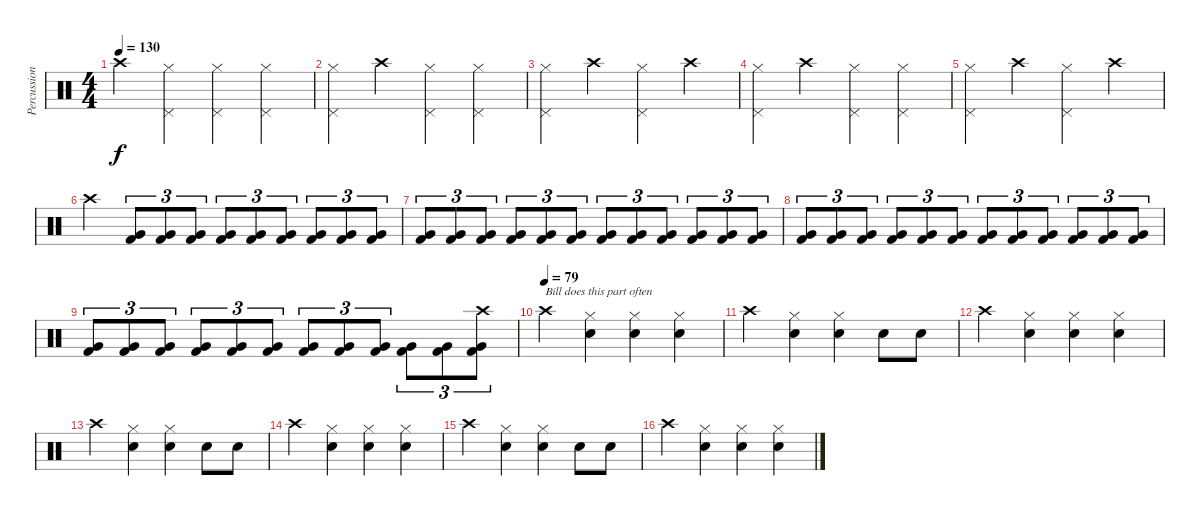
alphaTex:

\track ("Percussion" "Percussion") {instrument percussion}
\staff {score}
\articulation defaults
\ts (4 4)
\tempo 130
\clef neutral
\ks c "Crash high (hit)".4{dy f}
("Pedal Hi-Hat (hit)" "Hi-Hat (closed)").4 ("Pedal Hi-Hat (hit)" "Hi-Hat (closed)").4 ("Pedal Hi-Hat (hit)" "Hi-Hat (closed)").4 |
("Pedal Hi-Hat (hit)" "Hi-Hat (closed)").4 "Crash high (hit)".4 ("Pedal Hi-Hat (hit)" "Hi-Hat (closed)").4 ("Pedal Hi-Hat (hit)" "Hi-Hat (closed)").4 |
("Pedal Hi-Hat (hit)" "Hi-Hat (closed)").4 "Crash high (hit)".4 ("Pedal Hi-Hat (hit)" "Hi-Hat (closed)").4 "Crash high (hit)".4 |
("Pedal Hi-Hat (hit)" "Hi-Hat (closed)").4 "Crash high (hit)".4 ("Pedal Hi-Hat (hit)" "Hi-Hat (closed)").4 ("Pedal Hi-Hat (hit)" "Hi-Hat (closed)").4 |
("Pedal Hi-Hat (hit)" "Hi-Hat (closed)").4 "Crash high (hit)".4 ("Pedal Hi-Hat (hit)" "Hi-Hat (closed)").4 "Crash high (hit)".4 |
"Crash high (hit)".4 ("Very Low Tom (hit)" "Kick (hit) 2").8{tu (3 2) volume 4} ("Very Low Tom (hit)" "Kick (hit) 2").8{tu (3 2)} ("Very Low Tom (hit)" "Kick (hit) 2").8{tu (3 2)} ("Very Low Tom (hit)" "Kick (hit) 2").8{tu (3 2)} ("Very Low Tom (hit)" "Kick (hit) 2").8{tu (3 2)} ("Very Low Tom (hit)" "Kick (hit) 2").8{tu (3 2)} ("Very Low Tom (hit)" "Kick (hit) 2").8{tu (3 2)} ("Very Low Tom (hit)" "Kick (hit) 2").8{tu (3 2)} ("Very Low Tom (hit)" "Kick (hit) 2").8{tu (3 2)} |
("Very Low Tom (hit)" "Kick (hit) 2").8{tu (3 2)} ("Very Low Tom (hit)" "Kick (hit) 2").8{tu (3 2)} ("Very Low Tom (hit)" "Kick (hit) 2").8{tu (3 2)} ("Very Low Tom (hit)" "Kick (hit) 2").8{tu (3 2)} ("Very Low Tom (hit)" "Kick (hit) 2").8{tu (3 2)} ("Very Low Tom (hit)" "Kick (hit) 2").8{tu (3 2)} ("Very Low Tom (hit)" "Kick (hit) 2").8{tu (3 2)} ("Very Low Tom (hit)" "Kick (hit) 2").8{tu (3 2) volume 13} ("Very Low Tom (hit)" "Kick (hit) 2").8{tu (3 2)} ("Very Low Tom (hit)" "Kick (hit) 2").8{tu (3 2)} ("Very Low Tom (hit)" "Kick (hit) 2").8{tu (3 2)} ("Very Low Tom (hit)" "Kick (hit) 2").8{tu (3 2)} |
("Very Low Tom (hit)" "Kick (hit) 2").8{tu (3 2)} ("Very Low Tom (hit)" "Kick (hit) 2").8{tu (3 2)} ("Very Low Tom (hit)" "Kick (hit) 2").8{tu (3 2)} ("Very Low Tom (hit)" "Kick (hit) 2").8{tu (3 2)} ("Very Low Tom (hit)" "Kick (hit) 2").8{tu (3 2)} ("Very Low Tom (hit)" "Kick (hit) 2").8{tu (3 2)} ("Very Low Tom (hit)" "Kick (hit) 2").8{tu (3 2)} ("Very Low Tom (hit)" "Kick (hit) 2").8{tu (3 2)} ("Very Low Tom (hit)" "Kick (hit) 2").8{tu (3 2)} ("Very Low Tom (hit)" "Kick (hit) 2").8{tu (3 2)} ("Very Low Tom (hit)" "Kick (hit) 2").8{tu (3 2)} ("Very Low Tom (hit)" "Kick (hit) 2").8{tu (3 2)} |
("Very Low Tom (hit)" "Kick (hit) 2").8{tu (3 2)} ("Very Low Tom (hit)" "Kick (hit) 2").8{tu (3 2)} ("Very Low Tom (hit)" "Kick (hit) 2").8{tu (3 2)} ("Very Low Tom (hit)" "Kick (hit) 2").8{tu (3 2)} ("Very Low Tom (hit)" "Kick (hit) 2").8{tu (3 2)} ("Very Low Tom (hit)" "Kick (hit) 2").8{tu (3 2)} ("Very Low Tom (hit)" "Kick (hit) 2").8{tu (3 2)} ("Very Low Tom (hit)" "Kick (hit) 2").8{tu (3 2)} ("Very Low Tom (hit)" "Kick (hit) 2").8{tu (3 2)} ("Very Low Tom (hit)" "Kick (hit) 2").8{tu (3 2)} ("Very Low Tom (hit)" "Kick (hit) 2").8{tu (3 2)} ("Crash high (hit)" "Very Low Tom (hit)" "Kick (hit) 2").8{tu (3 2)} |
\tempo (79)
"Crash high (hit)".4{txt "Bill does this part often"} ("Snare (hit) 2" "Hi-Hat (closed)").4 ("Snare (hit) 2" "Hi-Hat (closed)").4 ("Snare (hit) 2" "Hi-Hat (closed)").4 |
"Crash high (hit)".4 ("Snare (hit) 2" "Hi-Hat (closed)").4 ("Snare (hit) 2" "Hi-Hat (closed)").4 "Snare (hit) 2".8 "Snare (hit) 2".8 |
"Crash high (hit)".4 ("Snare (hit) 2" "Hi-Hat (closed)").4 ("Snare (hit) 2" "Hi-Hat (closed)").4 ("Snare (hit) 2" "Hi-Hat (closed)").4 |
"Crash high (hit)".4 ("Snare (hit) 2" "Hi-Hat (closed)").4 ("Snare (hit) 2" "Hi-Hat (closed)").4 "Snare (hit) 2".8 "Snare (hit) 2".8 |
"Crash high (hit)".4 ("Snare (hit) 2" "Hi-Hat (closed)").4 ("Snare (hit) 2" "Hi-Hat (closed)").4 ("Snare (hit) 2" "Hi-Hat (closed)").4 |
"Crash high (hit)".4 ("Snare (hit) 2" "Hi-Hat (closed)").4 ("Snare (hit) 2" "Hi-Hat (closed)").4 "Snare (hit) 2".8 "Snare (hit) 2".8 |
"Crash high (hit)".4 ("Snare (hit) 2" "Hi-Hat (closed)").4 ("Snare (hit) 2" "Hi-Hat (closed)").4 ("Snare (hit) 2" "Hi-Hat (closed)").4
